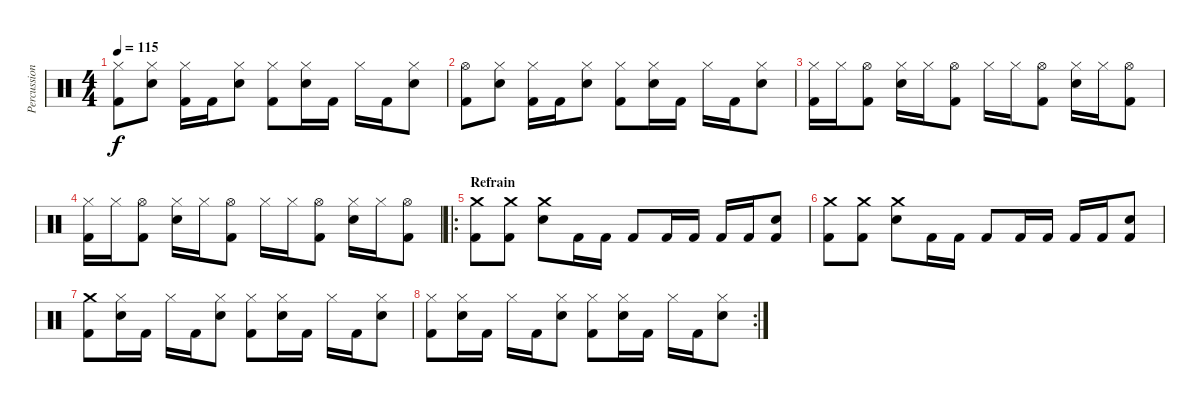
\track ("Percussion" "Percussion") {instrument percussion}
\staff {score}
\articulation defaults
\ts (4 4)
\tempo 115
\clef neutral
\ks c
("Hi-Hat (closed)" "Kick (hit) 2").8{dy f} ("Hi-Hat (closed)" "Electric Snare (hit)").8 ("Hi-Hat (closed)" "Kick (hit) 2").16 "Kick (hit) 2".16 ("Hi-Hat (closed)" "Electric Snare (hit)").8 ("Hi-Hat (closed)" "Kick (hit) 2").8 ("Hi-Hat (closed)" "Electric Snare (hit)").16 "Kick (hit) 2".16 "Hi-Hat (closed)".16 "Kick (hit) 2".16 ("Hi-Hat (closed)" "Electric Snare (hit)").8 |
("Hi-Hat (open)" "Kick (hit) 2").8 ("Hi-Hat (closed)" "Electric Snare (hit)").8 ("Hi-Hat (closed)" "Kick (hit) 2").16 "Kick (hit) 2".16 ("Hi-Hat (closed)" "Electric Snare (hit)").8 ("Hi-Hat (closed)" "Kick (hit) 2").8 ("Hi-Hat (closed)" "Electric Snare (hit)").16 "Kick (hit) 2".16 "Hi-Hat (closed)".16 "Kick (hit) 2".16 ("Hi-Hat (closed)" "Electric Snare (hit)").8 |
("Hi-Hat (closed)" "Kick (hit) 2").16 "Hi-Hat (closed)".16 ("Hi-Hat (open)" "Kick (hit) 2").8 ("Hi-Hat (closed)" "Electric Snare (hit)").16 "Hi-Hat (closed)".16 ("Hi-Hat (open)" "Kick (hit) 2").8 "Hi-Hat (closed)".16 "Hi-Hat (closed)".16 ("Hi-Hat (open)" "Kick (hit) 2").8 ("Hi-Hat (closed)" "Electric Snare (hit)").16 "Hi-Hat (closed)".16 ("Hi-Hat (open)" "Kick (hit) 2").8 |
("Hi-Hat (closed)" "Kick (hit) 2").16 "Hi-Hat (closed)".16 ("Hi-Hat (open)" "Kick (hit) 2").8 ("Hi-Hat (closed)" "Electric Snare (hit)").16 "Hi-Hat (closed)".16 ("Hi-Hat (open)" "Kick (hit) 2").8 "Hi-Hat (closed)".16 "Hi-Hat (closed)".16 ("Hi-Hat (open)" "Kick (hit) 2").8 ("Hi-Hat (closed)" "Electric Snare (hit)").16 "Hi-Hat (closed)".16 ("Hi-Hat (open)" "Kick (hit) 2").8 |
\ro
\section ("" "Refrain")
("Crash medium (hit)" "Kick (hit) 2").8 ("Crash medium (hit)" "Kick (hit) 2").8 ("Crash medium (hit)" "Electric Snare (hit)").8 "Kick (hit) 2".16 "Kick (hit) 2".16 "Kick (hit) 2".8 "Kick (hit) 2".16 "Kick (hit) 2".16 "Kick (hit) 2".16 "Kick (hit) 2".16 ("Electric Snare (hit)" "Kick (hit) 2").8 |
("Crash medium (hit)" "Kick (hit) 2").8 ("Crash medium (hit)" "Kick (hit) 2").8 ("Crash medium (hit)" "Electric Snare (hit)").8 "Kick (hit) 2".16 "Kick (hit) 2".16 "Kick (hit) 2".8 "Kick (hit) 2".16 "Kick (hit) 2".16 "Kick (hit) 2".16 "Kick (hit) 2".16 ("Electric Snare (hit)" "Kick (hit) 2").8 |
("Crash medium (hit)" "Kick (hit) 2").8 ("Hi-Hat (closed)" "Electric Snare (hit)").16 "Kick (hit) 2".16 "Hi-Hat (closed)".16 "Kick (hit) 2".16 ("Hi-Hat (closed)" "Electric Snare (hit)").8 ("Hi-Hat (closed)" "Kick (hit) 2").8 ("Hi-Hat (closed)" "Electric Snare (hit)").16 "Kick (hit) 2".16 "Hi-Hat (closed)".16 "Kick (hit) 2".16 ("Hi-Hat (closed)" "Electric Snare (hit)").8 |
\rc 2
("Hi-Hat (closed)" "Kick (hit) 2").8 ("Hi-Hat (closed)" "Electric Snare (hit)").16 "Kick (hit) 2".16 "Hi-Hat (closed)".16 "Kick (hit) 2".16 ("Hi-Hat (closed)" "Electric Snare (hit)").8 ("Hi-Hat (closed)" "Kick (hit) 2").8 ("Hi-Hat (closed)" "Electric Snare (hit)").16 "Kick (hit) 2".16 "Hi-Hat (closed)".16 "Kick (hit) 2".16 ("Hi-Hat (closed)" "Electric Snare (hit)").8
